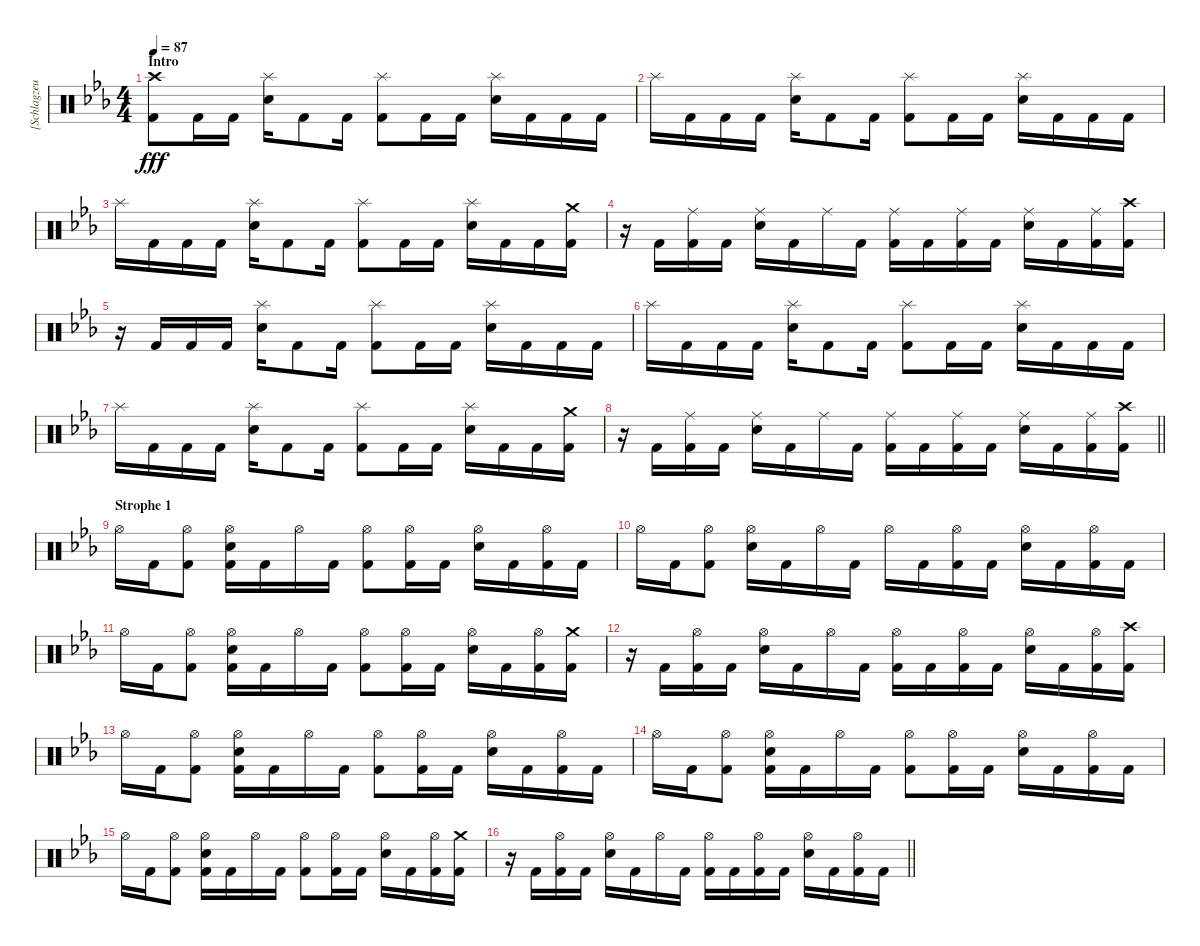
\track ("[Schlagzeug]" "[Schlagzeu") {instrument percussion}
\staff {score}
\articulation defaults
\ts (4 4)
\section ("" "Intro")
\tempo 87
\clef neutral
\ks cminor
("Crash high (hit)" "Kick (hit) 2").8{dy fff} "Kick (hit) 2".16 "Kick (hit) 2".16 ("Electric Snare (hit)" "Splash (hit)").16 "Kick (hit) 2".8 "Kick (hit) 2".16 ("Kick (hit) 2" "Splash (hit)").8 "Kick (hit) 2".16 "Kick (hit) 2".16 ("Electric Snare (hit)" "Splash (hit)").16 "Kick (hit) 2".16 "Kick (hit) 2".16 "Kick (hit) 2".16 |
"Splash (hit)".16 "Kick (hit) 2".16 "Kick (hit) 2".16 "Kick (hit) 2".16 ("Electric Snare (hit)" "Splash (hit)").16 "Kick (hit) 2".8 "Kick (hit) 2".16 ("Kick (hit) 2" "Splash (hit)").8 "Kick (hit) 2".16 "Kick (hit) 2".16 ("Electric Snare (hit)" "Splash (hit)").16 "Kick (hit) 2".16 "Kick (hit) 2".16 "Kick (hit) 2".16 |
"Splash (hit)".16 "Kick (hit) 2".16 "Kick (hit) 2".16 "Kick (hit) 2".16 ("Splash (hit)" "Electric Snare (hit)").16 "Kick (hit) 2".8 "Kick (hit) 2".16 ("Splash (hit)" "Kick (hit) 2").8 "Kick (hit) 2".16 "Kick (hit) 2".16 ("Splash (hit)" "Electric Snare (hit)").16 "Kick (hit) 2".16 "Kick (hit) 2".16 ("Crash medium (hit)" "Kick (hit) 2").16 |
r.16 "Kick (hit) 2".16 ("Kick (hit) 2" "Ride (middle)").16 "Kick (hit) 2".16 ("Electric Snare (hit)" "Ride (middle)").16 "Kick (hit) 2".16 "Ride (middle)".16 "Kick (hit) 2".16 ("Kick (hit) 2" "Ride (middle)").16 "Kick (hit) 2".16 ("Kick (hit) 2" "Ride (middle)").16 "Kick (hit) 2".16 ("Ride (middle)" "Electric Snare (hit)").16 "Kick (hit) 2".16 ("Kick (hit) 2" "Ride (middle)").16 ("Crash high (hit)" "Kick (hit) 2").16 |
r.16 "Kick (hit) 2".16 "Kick (hit) 2".16 "Kick (hit) 2".16 ("Splash (hit)" "Electric Snare (hit)").16 "Kick (hit) 2".8 "Kick (hit) 2".16 ("Kick (hit) 2" "Splash (hit)").8 "Kick (hit) 2".16 "Kick (hit) 2".16 ("Electric Snare (hit)" "Splash (hit)").16 "Kick (hit) 2".16 "Kick (hit) 2".16 "Kick (hit) 2".16 |
"Splash (hit)".16 "Kick (hit) 2".16 "Kick (hit) 2".16 "Kick (hit) 2".16 ("Electric Snare (hit)" "Splash (hit)").16 "Kick (hit) 2".8 "Kick (hit) 2".16 ("Splash (hit)" "Kick (hit) 2").8 "Kick (hit) 2".16 "Kick (hit) 2".16 ("Splash (hit)" "Electric Snare (hit)").16 "Kick (hit) 2".16 "Kick (hit) 2".16 "Kick (hit) 2".16 |
"Splash (hit)".16 "Kick (hit) 2".16 "Kick (hit) 2".16 "Kick (hit) 2".16 ("Splash (hit)" "Electric Snare (hit)").16 "Kick (hit) 2".8 "Kick (hit) 2".16 ("Splash (hit)" "Kick (hit) 2").8 "Kick (hit) 2".16 "Kick (hit) 2".16 ("Electric Snare (hit)" "Splash (hit)").16 "Kick (hit) 2".16 "Kick (hit) 2".16 ("Crash medium (hit)" "Kick (hit) 2").16 |
\barLineRight lightlight
r.16 "Kick (hit) 2".16 ("Ride (middle)" "Kick (hit) 2").16 "Kick (hit) 2".16 ("Ride (middle)" "Electric Snare (hit)").16 "Kick (hit) 2".16 "Ride (middle)".16 "Kick (hit) 2".16 ("Ride (middle)" "Kick (hit) 2").16 "Kick (hit) 2".16 ("Kick (hit) 2" "Ride (middle)").16 "Kick (hit) 2".16 ("Ride (middle)" "Electric Snare (hit)").16 "Kick (hit) 2".16 ("Kick (hit) 2" "Ride (middle)").16 ("Kick (hit) 2" "Crash high (hit)").16 |
\section ("" "Strophe 1")
"Hi-Hat (open)".16 "Kick (hit) 2".16 ("Hi-Hat (open)" "Kick (hit) 2").8 ("Hi-Hat (open)" "Kick (hit) 2" "Electric Snare (hit)").16 "Kick (hit) 2".16 "Hi-Hat (open)".16 "Kick (hit) 2".16 ("Hi-Hat (open)" "Kick (hit) 2").8 ("Kick (hit) 2" "Hi-Hat (open)").16 "Kick (hit) 2".16 ("Hi-Hat (open)" "Electric Snare (hit)").16 "Kick (hit) 2".16 ("Kick (hit) 2" "Hi-Hat (open)").16 "Kick (hit) 2".16 |
"Hi-Hat (open)".16 "Kick (hit) 2".16 ("Kick (hit) 2" "Hi-Hat (open)").8 ("Electric Snare (hit)" "Hi-Hat (open)").16 "Kick (hit) 2".16 "Hi-Hat (open)".16 "Kick (hit) 2".16 "Hi-Hat (open)".16 "Kick (hit) 2".16 ("Kick (hit) 2" "Hi-Hat (open)").16 "Kick (hit) 2".16 ("Electric Snare (hit)" "Hi-Hat (open)").16 "Kick (hit) 2".16 ("Kick (hit) 2" "Hi-Hat (open)").16 "Kick (hit) 2".16 |
"Hi-Hat (open)".16 "Kick (hit) 2".16 ("Kick (hit) 2" "Hi-Hat (open)").8 ("Hi-Hat (open)" "Kick (hit) 2" "Electric Snare (hit)").16 "Kick (hit) 2".16 "Hi-Hat (open)".16 "Kick (hit) 2".16 ("Hi-Hat (open)" "Kick (hit) 2").8 ("Kick (hit) 2" "Hi-Hat (open)").16 "Kick (hit) 2".16 ("Hi-Hat (open)" "Electric Snare (hit)").16 "Kick (hit) 2".16 ("Kick (hit) 2" "Hi-Hat (open)").16 ("Crash medium (hit)" "Kick (hit) 2").16 |
r.16 "Kick (hit) 2".16 ("Kick (hit) 2" "Hi-Hat (open)").16 "Kick (hit) 2".16 ("Electric Snare (hit)" "Hi-Hat (open)").16 "Kick (hit) 2".16 "Hi-Hat (open)".16 "Kick (hit) 2".16 ("Kick (hit) 2" "Hi-Hat (open)").16 "Kick (hit) 2".16 ("Kick (hit) 2" "Hi-Hat (open)").16 "Kick (hit) 2".16 ("Electric Snare (hit)" "Hi-Hat (open)").16 "Kick (hit) 2".16 ("Kick (hit) 2" "Hi-Hat (open)").16 ("Crash high (hit)" "Kick (hit) 2").16 |
"Hi-Hat (open)".16 "Kick (hit) 2".16 ("Hi-Hat (open)" "Kick (hit) 2").8 ("Hi-Hat (open)" "Kick (hit) 2" "Electric Snare (hit)").16 "Kick (hit) 2".16 "Hi-Hat (open)".16 "Kick (hit) 2".16 ("Hi-Hat (open)" "Kick (hit) 2").8 ("Kick (hit) 2" "Hi-Hat (open)").16 "Kick (hit) 2".16 ("Hi-Hat (open)" "Electric Snare (hit)").16 "Kick (hit) 2".16 ("Kick (hit) 2" "Hi-Hat (open)").16 "Kick (hit) 2".16 |
"Hi-Hat (open)".16 "Kick (hit) 2".16 ("Hi-Hat (open)" "Kick (hit) 2").8 ("Hi-Hat (open)" "Kick (hit) 2" "Electric Snare (hit)").16 "Kick (hit) 2".16 "Hi-Hat (open)".16 "Kick (hit) 2".16 ("Hi-Hat (open)" "Kick (hit) 2").8 ("Kick (hit) 2" "Hi-Hat (open)").16 "Kick (hit) 2".16 ("Hi-Hat (open)" "Electric Snare (hit)").16 "Kick (hit) 2".16 ("Kick (hit) 2" "Hi-Hat (open)").16 "Kick (hit) 2".16 |
"Hi-Hat (open)".16 "Kick (hit) 2".16 ("Kick (hit) 2" "Hi-Hat (open)").8 ("Hi-Hat (open)" "Kick (hit) 2" "Electric Snare (hit)").16 "Kick (hit) 2".16 "Hi-Hat (open)".16 "Kick (hit) 2".16 ("Hi-Hat (open)" "Kick (hit) 2").8 ("Kick (hit) 2" "Hi-Hat (open)").16 "Kick (hit) 2".16 ("Hi-Hat (open)" "Electric Snare (hit)").16 "Kick (hit) 2".16 ("Kick (hit) 2" "Hi-Hat (open)").16 ("Crash medium (hit)" "Kick (hit) 2").16 |
\barLineRight lightlight
r.16 "Kick (hit) 2".16 ("Hi-Hat (open)" "Kick (hit) 2").16 "Kick (hit) 2".16 ("Hi-Hat (open)" "Electric Snare (hit)").16 "Kick (hit) 2".16 "Hi-Hat (open)".16 "Kick (hit) 2".16 ("Kick (hit) 2" "Hi-Hat (open)").16 "Kick (hit) 2".16 ("Kick (hit) 2" "Hi-Hat (open)").16 "Kick (hit) 2".16 ("Hi-Hat (open)" "Electric Snare (hit)").16 "Kick (hit) 2".16 ("Kick (hit) 2" "Hi-Hat (open)").16 "Kick (hit) 2".16
